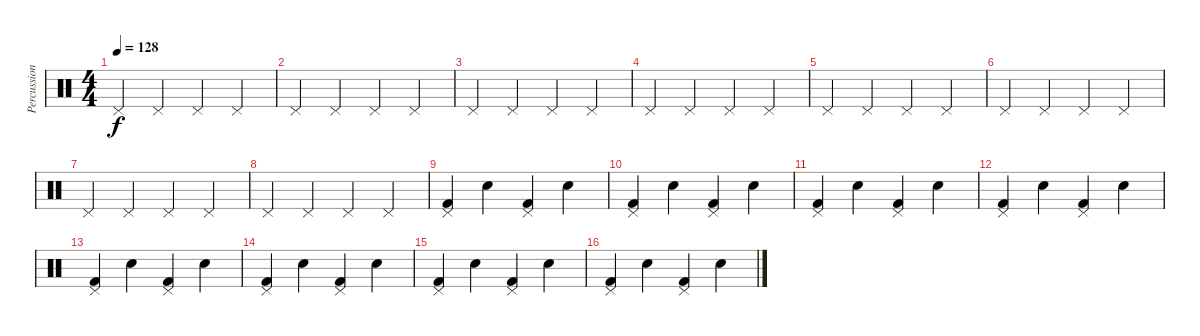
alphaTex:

\track ("Percussion" "Percussion") {instrument percussion}
\staff {score}
\articulation defaults
\ts (4 4)
\tempo 128
\clef neutral
\ks c "Pedal Hi-Hat (hit)".4{dy f} "Pedal Hi-Hat (hit)".4 "Pedal Hi-Hat (hit)".4 "Pedal Hi-Hat (hit)".4
|
"Pedal Hi-Hat (hit)".4 "Pedal Hi-Hat (hit)".4 "Pedal Hi-Hat (hit)".4 "Pedal Hi-Hat (hit)".4 |
"Pedal Hi-Hat (hit)".4 "Pedal Hi-Hat (hit)".4 "Pedal Hi-Hat (hit)".4 "Pedal Hi-Hat (hit)".4 |
"Pedal Hi-Hat (hit)".4 "Pedal Hi-Hat (hit)".4 "Pedal Hi-Hat (hit)".4 "Pedal Hi-Hat (hit)".4 |
"Pedal Hi-Hat (hit)".4 "Pedal Hi-Hat (hit)".4 "Pedal Hi-Hat (hit)".4 "Pedal Hi-Hat (hit)".4 |
"Pedal Hi-Hat (hit)".4 "Pedal Hi-Hat (hit)".4 "Pedal Hi-Hat (hit)".4 "Pedal Hi-Hat (hit)".4 |
"Pedal Hi-Hat (hit)".4 "Pedal Hi-Hat (hit)".4 "Pedal Hi-Hat (hit)".4 "Pedal Hi-Hat (hit)".4 |
"Pedal Hi-Hat (hit)".4 "Pedal Hi-Hat (hit)".4 "Pedal Hi-Hat (hit)".4 "Pedal Hi-Hat (hit)".4 |
("Kick (hit) 2" "Pedal Hi-Hat (hit)").4 "Snare (hit) 2".4 ("Pedal Hi-Hat (hit)" "Kick (hit) 2").4 "Snare (hit) 2".4 |
("Kick (hit) 2" "Pedal Hi-Hat (hit)").4 "Snare (hit) 2".4 ("Pedal Hi-Hat (hit)" "Kick (hit) 2").4 "Snare (hit) 2".4 |
("Kick (hit) 2" "Pedal Hi-Hat (hit)").4 "Snare (hit) 2".4 ("Pedal Hi-Hat (hit)" "Kick (hit) 2").4 "Snare (hit) 2".4 |
("Kick (hit) 2" "Pedal Hi-Hat (hit)").4 "Snare (hit) 2".4 ("Pedal Hi-Hat (hit)" "Kick (hit) 2").4 "Snare (hit) 2".4 |
("Kick (hit) 2" "Pedal Hi-Hat (hit)").4 "Snare (hit) 2".4 ("Pedal Hi-Hat (hit)" "Kick (hit) 2").4 "Snare (hit) 2".4 |
("Kick (hit) 2" "Pedal Hi-Hat (hit)").4 "Snare (hit) 2".4 ("Pedal Hi-Hat (hit)" "Kick (hit) 2").4 "Snare (hit) 2".4 |
("Kick (hit) 2" "Pedal Hi-Hat (hit)").4 "Snare (hit) 2".4 ("Pedal Hi-Hat (hit)" "Kick (hit) 2").4 "Snare (hit) 2".4 |
("Kick (hit) 2" "Pedal Hi-Hat (hit)").4 "Snare (hit) 2".4 ("Pedal Hi-Hat (hit)" "Kick (hit) 2").4 "Snare (hit) 2".4
